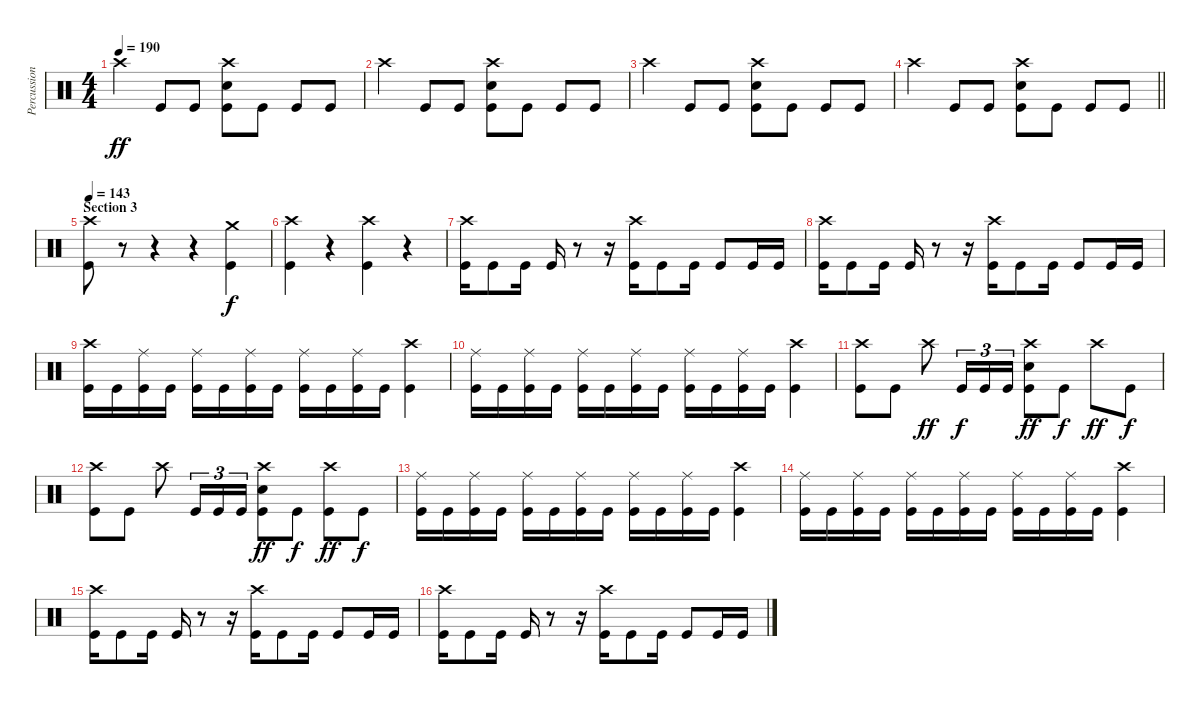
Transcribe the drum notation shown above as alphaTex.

\track ("Percussion" "Percussion") {instrument percussion}
\staff {score}
\articulation defaults
\ts (4 4)
\tempo 190
\clef neutral
\ks c "Crash high (hit)".4{dy ff} "Kick (hit)".8 "Kick (hit)".8
("Snare (hit) 2" "Crash high (hit)" "Kick (hit)").8 "Kick (hit)".8 "Kick (hit)".8 "Kick (hit)".8 |
"Crash high (hit)".4 "Kick (hit)".8 "Kick (hit)".8 ("Snare (hit) 2" "Crash high (hit)" "Kick (hit)").8 "Kick (hit)".8 "Kick (hit)".8 "Kick (hit)".8 |
"Crash high (hit)".4 "Kick (hit)".8 "Kick (hit)".8 ("Snare (hit) 2" "Crash high (hit)" "Kick (hit)").8 "Kick (hit)".8 "Kick (hit)".8 "Kick (hit)".8 |
\barLineRight lightlight "Crash high (hit)".4 "Kick (hit)".8 "Kick (hit)".8
("Snare (hit) 2" "Crash high (hit)" "Kick (hit)").8 "Kick (hit)".8 "Kick (hit)".8 "Kick (hit)".8 |
\section ("" "Section 3")
\tempo 143
("Crash high (hit)" "Kick (hit)").8 r.8 r.4 r.4 ("Crash medium (hit)" "Kick (hit)").4{dy f} |
("Crash high (hit)" "Kick (hit)").4 r.4 ("Crash high (hit)" "Kick (hit)").4 r.4 |
("Crash high (hit)" "Kick (hit)").16 "Kick (hit)".8 "Kick (hit)".16 "Kick (hit)".16 r.8 r.16 ("Crash high (hit)" "Kick (hit)").16 "Kick (hit)".8 "Kick (hit)".16 "Kick (hit)".8 "Kick (hit)".16 "Kick (hit)".16 |
("Crash high (hit)" "Kick (hit)").16 "Kick (hit)".8 "Kick (hit)".16 "Kick (hit)".16 r.8 r.16 ("Crash high (hit)" "Kick (hit)").16 "Kick (hit)".8 "Kick (hit)".16 "Kick (hit)".8 "Kick (hit)".16 "Kick (hit)".16 |
("Crash high (hit)" "Kick (hit)").16 "Kick (hit)".16 ("Ride (middle)" "Kick (hit)").16 "Kick (hit)".16 ("Ride (middle)" "Kick (hit)").16 "Kick (hit)".16 ("Ride (middle)" "Kick (hit)").16 "Kick (hit)".16 ("Ride (middle)" "Kick (hit)").16 "Kick (hit)".16 ("Ride (middle)" "Kick (hit)").16 "Kick (hit)".16 ("Crash high (hit)" "Kick (hit)").4 |
("Ride (middle)" "Kick (hit)").16 "Kick (hit)".16 ("Ride (middle)" "Kick (hit)").16 "Kick (hit)".16 ("Ride (middle)" "Kick (hit)").16 "Kick (hit)".16 ("Ride (middle)" "Kick (hit)").16 "Kick (hit)".16 ("Ride (middle)" "Kick (hit)").16 "Kick (hit)".16 ("Ride (middle)" "Kick (hit)").16 "Kick (hit)".16 ("Crash high (hit)" "Kick (hit)").4 |
("Crash high (hit)" "Kick (hit)").8 "Kick (hit)".8 "Crash high (hit)".8{dy ff} "Kick (hit)".16{tu (3 2) dy f} "Kick (hit)".16{tu (3 2)} "Kick (hit)".16{tu (3 2)} ("Crash high (hit)" "Snare (hit) 2" "Kick (hit)").8{dy ff} "Kick (hit)".8{dy f} "Crash high (hit)".8{dy ff} "Kick (hit)".8{dy f} |
("Crash high (hit)" "Kick (hit)").8 "Kick (hit)".8 "Crash high (hit)".8 "Kick (hit)".16{tu (3 2)} "Kick (hit)".16{tu (3 2)} "Kick (hit)".16{tu (3 2)} ("Crash high (hit)" "Snare (hit) 2" "Kick (hit)").8{dy ff} "Kick (hit)".8{dy f} ("Crash high (hit)" "Kick (hit)").8{dy ff} "Kick (hit)".8{dy f} |
("Ride (middle)" "Kick (hit)").16 "Kick (hit)".16 ("Ride (middle)" "Kick (hit)").16 "Kick (hit)".16 ("Ride (middle)" "Kick (hit)").16 "Kick (hit)".16 ("Ride (middle)" "Kick (hit)").16 "Kick (hit)".16 ("Ride (middle)" "Kick (hit)").16 "Kick (hit)".16 ("Ride (middle)" "Kick (hit)").16 "Kick (hit)".16 ("Crash high (hit)" "Kick (hit)").4 |
("Ride (middle)" "Kick (hit)").16 "Kick (hit)".16 ("Ride (middle)" "Kick (hit)").16 "Kick (hit)".16 ("Ride (middle)" "Kick (hit)").16 "Kick (hit)".16 ("Ride (middle)" "Kick (hit)").16 "Kick (hit)".16 ("Ride (middle)" "Kick (hit)").16 "Kick (hit)".16 ("Ride (middle)" "Kick (hit)").16 "Kick (hit)".16 ("Crash high (hit)" "Kick (hit)").4 |
("Crash high (hit)" "Kick (hit)").16 "Kick (hit)".8 "Kick (hit)".16 "Kick (hit)".16 r.8 r.16 ("Crash high (hit)" "Kick (hit)").16 "Kick (hit)".8 "Kick (hit)".16 "Kick (hit)".8 "Kick (hit)".16 "Kick (hit)".16 |
("Crash high (hit)" "Kick (hit)").16 "Kick (hit)".8 "Kick (hit)".16 "Kick (hit)".16 r.8 r.16 ("Crash high (hit)" "Kick (hit)").16 "Kick (hit)".8 "Kick (hit)".16 "Kick (hit)".8 "Kick (hit)".16 "Kick (hit)".16
